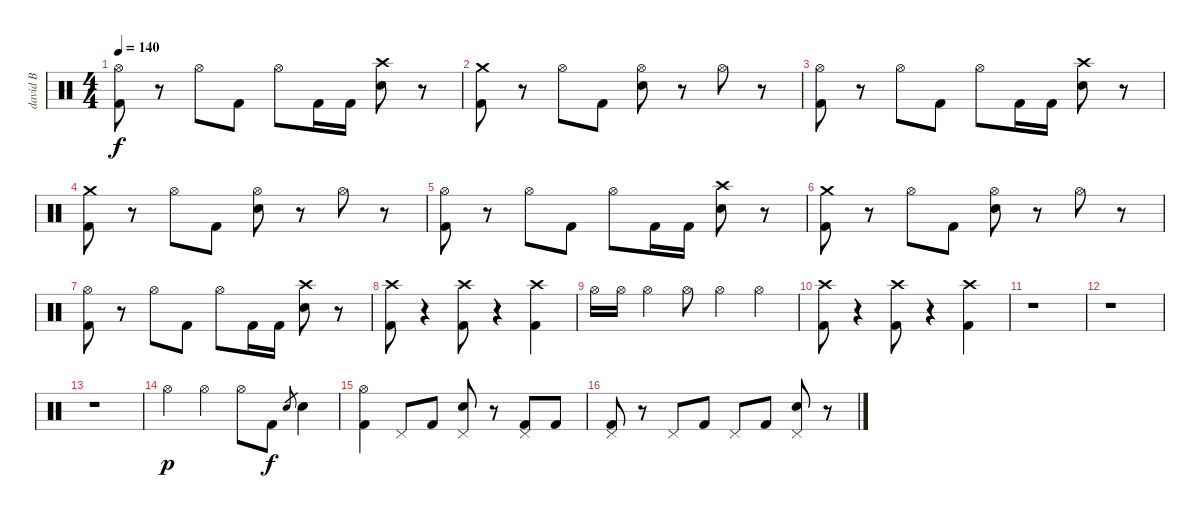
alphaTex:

\track ("david B" "david B") {instrument percussion}
\staff {score}
\articulation defaults
\ts (4 4)
\tempo 140
\clef neutral
\ks c
("Hi-Hat (open)" "Kick (hit) 2").8{dy f} r.8 "Hi-Hat (open)".8 "Kick (hit) 2".8 "Hi-Hat (open)".8 "Kick (hit) 2".16 "Kick (hit) 2".16 ("Crash high (hit)" "Electric Snare (hit)").8 r.8 |
("Crash medium (hit)" "Kick (hit) 2").8 r.8 "Hi-Hat (open)".8 "Kick (hit) 2".8 ("Hi-Hat (open)" "Electric Snare (hit)").8 r.8 "Hi-Hat (open)".8 r.8 |
("Hi-Hat (open)" "Kick (hit) 2").8 r.8 "Hi-Hat (open)".8 "Kick (hit) 2".8 "Hi-Hat (open)".8 "Kick (hit) 2".16 "Kick (hit) 2".16 ("Crash high (hit)" "Electric Snare (hit)").8 r.8 |
("Crash medium (hit)" "Kick (hit) 2").8 r.8 "Hi-Hat (open)".8 "Kick (hit) 2".8 ("Hi-Hat (open)" "Electric Snare (hit)").8 r.8 "Hi-Hat (open)".8 r.8 |
("Hi-Hat (open)" "Kick (hit) 2").8 r.8 "Hi-Hat (open)".8 "Kick (hit) 2".8 "Hi-Hat (open)".8 "Kick (hit) 2".16 "Kick (hit) 2".16 ("Crash high (hit)" "Electric Snare (hit)").8 r.8 |
("Crash medium (hit)" "Kick (hit) 2").8 r.8 "Hi-Hat (open)".8 "Kick (hit) 2".8 ("Hi-Hat (open)" "Electric Snare (hit)").8 r.8 "Hi-Hat (open)".8 r.8 |
("Hi-Hat (open)" "Kick (hit) 2").8 r.8 "Hi-Hat (open)".8 "Kick (hit) 2".8 "Hi-Hat (open)".8 "Kick (hit) 2".16 "Kick (hit) 2".16 ("Crash high (hit)" "Electric Snare (hit)").8 r.8 |
("Crash high (hit)" "Kick (hit) 2").8 r.4 ("Crash high (hit)" "Kick (hit) 2").8 r.4 ("Crash high (hit)" "Kick (hit) 2").4 |
"Hi-Hat (open)".16 "Hi-Hat (open)".16 "Hi-Hat (open)".4 "Hi-Hat (open)".8 "Hi-Hat (open)".4 "Hi-Hat (open)".4 |
("Crash high (hit)" "Kick (hit) 2").8 r.4 ("Crash high (hit)" "Kick (hit) 2").8 r.4 ("Crash high (hit)" "Kick (hit) 2").4 |
r.1 |
r.1 |
r.1 |
"Hi-Hat (open)".4{dy p} "Hi-Hat (open)".4 "Hi-Hat (open)".8 "Kick (hit) 2".8{dy f} "Electric Snare (hit)".8{gr} "Electric Snare (hit)".4 |
("Hi-Hat (open)" "Kick (hit) 2").4 "Pedal Hi-Hat (hit)".8 "Kick (hit) 2".8 ("Pedal Hi-Hat (hit)" "Electric Snare (hit)").8 r.8 ("Pedal Hi-Hat (hit)" "Kick (hit) 2").8 "Kick (hit) 2".8 |
("Pedal Hi-Hat (hit)" "Kick (hit) 2").8 r.8 "Pedal Hi-Hat (hit)".8 "Kick (hit) 2".8 "Pedal Hi-Hat (hit)".8 "Kick (hit) 2".8 ("Pedal Hi-Hat (hit)" "Electric Snare (hit)").8 r.8
